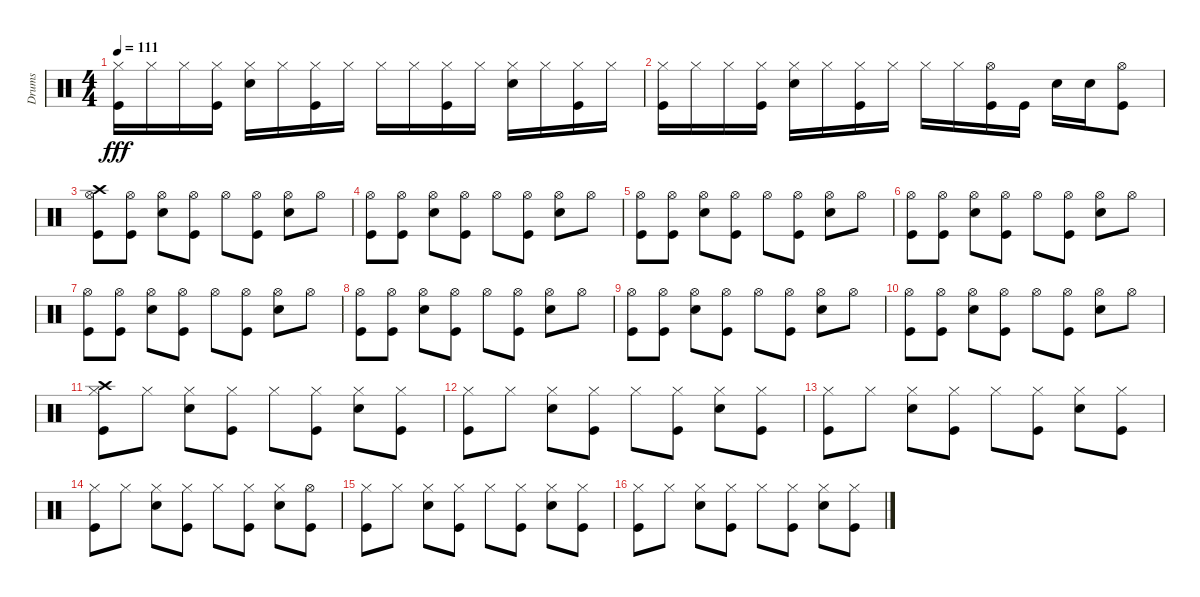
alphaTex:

\track ("Drums" "Drums") {instrument percussion}
\staff {score}
\articulation defaults
\ts (4 4)
\tempo 111
\clef neutral
\ks c
("Hi-Hat (closed)" "Kick (hit)").16{dy fff} "Hi-Hat (closed)".16 "Hi-Hat (closed)".16 ("Hi-Hat (closed)" "Kick (hit)").16 ("Hi-Hat (closed)" "Snare (hit) 2").16 "Hi-Hat (closed)".16 ("Hi-Hat (closed)" "Kick (hit)").16 "Hi-Hat (closed)".16 "Hi-Hat (closed)".16 "Hi-Hat (closed)".16 ("Hi-Hat (closed)" "Kick (hit)").16 "Hi-Hat (closed)".16 ("Hi-Hat (closed)" "Snare (hit) 2").16 "Hi-Hat (closed)".16 ("Hi-Hat (closed)" "Kick (hit)").16 "Hi-Hat (closed)".16 |
("Hi-Hat (closed)" "Kick (hit)").16 "Hi-Hat (closed)".16 "Hi-Hat (closed)".16 ("Hi-Hat (closed)" "Kick (hit)").16 ("Hi-Hat (closed)" "Snare (hit) 2").16 "Hi-Hat (closed)".16 ("Hi-Hat (closed)" "Kick (hit)").16 "Hi-Hat (closed)".16 "Hi-Hat (closed)".16 "Hi-Hat (closed)".16 ("Hi-Hat (open)" "Kick (hit)").16 "Kick (hit)".16 "Snare (hit) 2".16 "Snare (hit) 2".16 ("Hi-Hat (open)" "Kick (hit)").8 |
("Hi-Hat (open)" "Crash high (hit)" "Kick (hit)").8 ("Hi-Hat (open)" "Kick (hit)").8 ("Hi-Hat (open)" "Snare (hit) 2").8 ("Hi-Hat (open)" "Kick (hit)").8 "Hi-Hat (open)".8 ("Hi-Hat (open)" "Kick (hit)").8 ("Hi-Hat (open)" "Snare (hit) 2").8 "Hi-Hat (open)".8 |
("Hi-Hat (open)" "Kick (hit)").8 ("Hi-Hat (open)" "Kick (hit)").8 ("Hi-Hat (open)" "Snare (hit) 2").8 ("Hi-Hat (open)" "Kick (hit)").8 "Hi-Hat (open)".8 ("Hi-Hat (open)" "Kick (hit)").8 ("Hi-Hat (open)" "Snare (hit) 2").8 "Hi-Hat (open)".8 |
("Hi-Hat (open)" "Kick (hit)").8 ("Hi-Hat (open)" "Kick (hit)").8 ("Hi-Hat (open)" "Snare (hit) 2").8 ("Hi-Hat (open)" "Kick (hit)").8 "Hi-Hat (open)".8 ("Hi-Hat (open)" "Kick (hit)").8 ("Hi-Hat (open)" "Snare (hit) 2").8 "Hi-Hat (open)".8 |
("Hi-Hat (open)" "Kick (hit)").8 ("Hi-Hat (open)" "Kick (hit)").8 ("Hi-Hat (open)" "Snare (hit) 2").8 ("Hi-Hat (open)" "Kick (hit)").8 "Hi-Hat (open)".8 ("Hi-Hat (open)" "Kick (hit)").8 ("Hi-Hat (open)" "Snare (hit) 2").8 "Hi-Hat (open)".8 |
("Hi-Hat (open)" "Kick (hit)").8 ("Hi-Hat (open)" "Kick (hit)").8 ("Hi-Hat (open)" "Snare (hit) 2").8 ("Hi-Hat (open)" "Kick (hit)").8 "Hi-Hat (open)".8 ("Hi-Hat (open)" "Kick (hit)").8 ("Hi-Hat (open)" "Snare (hit) 2").8 "Hi-Hat (open)".8 |
("Hi-Hat (open)" "Kick (hit)").8 ("Hi-Hat (open)" "Kick (hit)").8 ("Hi-Hat (open)" "Snare (hit) 2").8 ("Hi-Hat (open)" "Kick (hit)").8 "Hi-Hat (open)".8 ("Hi-Hat (open)" "Kick (hit)").8 ("Hi-Hat (open)" "Snare (hit) 2").8 "Hi-Hat (open)".8 |
("Hi-Hat (open)" "Kick (hit)").8 ("Hi-Hat (open)" "Kick (hit)").8 ("Hi-Hat (open)" "Snare (hit) 2").8 ("Hi-Hat (open)" "Kick (hit)").8 "Hi-Hat (open)".8 ("Hi-Hat (open)" "Kick (hit)").8 ("Hi-Hat (open)" "Snare (hit) 2").8 "Hi-Hat (open)".8 |
("Hi-Hat (open)" "Kick (hit)").8 ("Hi-Hat (open)" "Kick (hit)").8 ("Hi-Hat (open)" "Snare (hit) 2").8 ("Hi-Hat (open)" "Kick (hit)").8 "Hi-Hat (open)".8 ("Hi-Hat (open)" "Kick (hit)").8 ("Hi-Hat (open)" "Snare (hit) 2").8 "Hi-Hat (open)".8 |
("Hi-Hat (closed)" "Crash high (hit)" "Kick (hit)").8 "Hi-Hat (closed)".8 ("Hi-Hat (closed)" "Snare (hit) 2").8 ("Hi-Hat (closed)" "Kick (hit)").8 "Hi-Hat (closed)".8 ("Hi-Hat (closed)" "Kick (hit)").8 ("Hi-Hat (closed)" "Snare (hit) 2").8 ("Hi-Hat (closed)" "Kick (hit)").8 |
("Hi-Hat (closed)" "Kick (hit)").8 "Hi-Hat (closed)".8 ("Hi-Hat (closed)" "Snare (hit) 2").8 ("Hi-Hat (closed)" "Kick (hit)").8 "Hi-Hat (closed)".8 ("Hi-Hat (closed)" "Kick (hit)").8 ("Hi-Hat (closed)" "Snare (hit) 2").8 ("Hi-Hat (closed)" "Kick (hit)").8 |
("Hi-Hat (closed)" "Kick (hit)").8 "Hi-Hat (closed)".8 ("Hi-Hat (closed)" "Snare (hit) 2").8 ("Hi-Hat (closed)" "Kick (hit)").8 "Hi-Hat (closed)".8 ("Hi-Hat (closed)" "Kick (hit)").8 ("Hi-Hat (closed)" "Snare (hit) 2").8 ("Hi-Hat (closed)" "Kick (hit)").8 |
("Hi-Hat (closed)" "Kick (hit)").8 "Hi-Hat (closed)".8 ("Hi-Hat (closed)" "Snare (hit) 2").8 ("Hi-Hat (closed)" "Kick (hit)").8 "Hi-Hat (closed)".8 ("Hi-Hat (closed)" "Kick (hit)").8 ("Hi-Hat (closed)" "Snare (hit) 2").8 ("Hi-Hat (open)" "Kick (hit)").8 |
("Hi-Hat (closed)" "Kick (hit)").8 "Hi-Hat (closed)".8 ("Hi-Hat (closed)" "Snare (hit) 2").8 ("Hi-Hat (closed)" "Kick (hit)").8 "Hi-Hat (closed)".8 ("Hi-Hat (closed)" "Kick (hit)").8 ("Hi-Hat (closed)" "Snare (hit) 2").8 ("Hi-Hat (closed)" "Kick (hit)").8 |
("Hi-Hat (closed)" "Kick (hit)").8 "Hi-Hat (closed)".8 ("Hi-Hat (closed)" "Snare (hit) 2").8 ("Hi-Hat (closed)" "Kick (hit)").8 "Hi-Hat (closed)".8 ("Hi-Hat (closed)" "Kick (hit)").8 ("Hi-Hat (closed)" "Snare (hit) 2").8 ("Hi-Hat (closed)" "Kick (hit)").8
